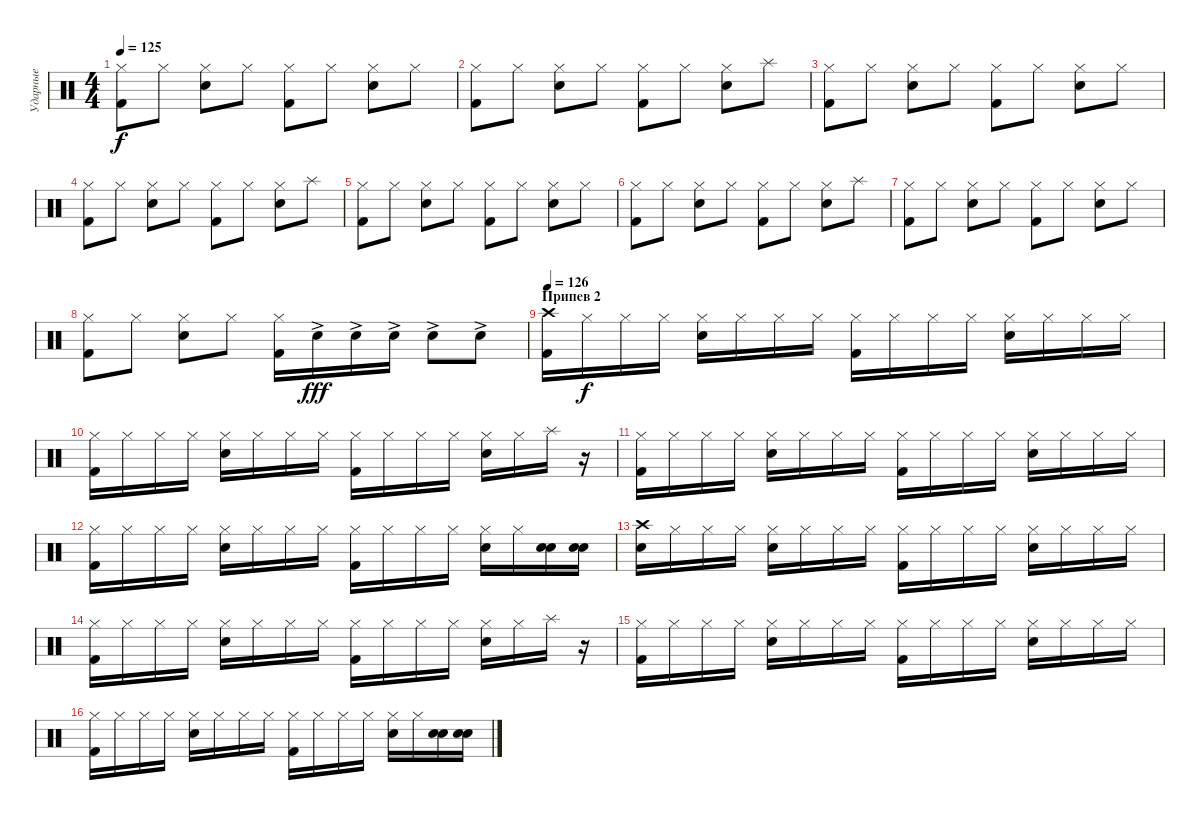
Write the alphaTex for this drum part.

\track ("Ударные" "Ударные") {instrument percussion}
\staff {score}
\articulation defaults
\ts (4 4)
\tempo 125
\clef neutral
\ks c
("Kick (hit) 2" "Hi-Hat (closed)").8{dy f} "Hi-Hat (closed)".8 ("Snare (hit) 2" "Hi-Hat (closed)").8 "Hi-Hat (closed)".8 ("Kick (hit) 2" "Hi-Hat (closed)").8 "Hi-Hat (closed)".8 ("Snare (hit) 2" "Hi-Hat (closed)").8 "Hi-Hat (closed)".8 |
("Kick (hit) 2" "Hi-Hat (closed)").8 "Hi-Hat (closed)".8 ("Snare (hit) 2" "Hi-Hat (closed)").8 "Hi-Hat (closed)".8 ("Kick (hit) 2" "Hi-Hat (closed)").8 "Hi-Hat (closed)".8 ("Snare (hit) 2" "Hi-Hat (closed)").8 "Splash (hit)".8 |
("Kick (hit) 2" "Hi-Hat (closed)").8 "Hi-Hat (closed)".8 ("Snare (hit) 2" "Hi-Hat (closed)").8 "Hi-Hat (closed)".8 ("Kick (hit) 2" "Hi-Hat (closed)").8 "Hi-Hat (closed)".8 ("Snare (hit) 2" "Hi-Hat (closed)").8 "Hi-Hat (closed)".8 |
("Kick (hit) 2" "Hi-Hat (closed)").8 "Hi-Hat (closed)".8 ("Snare (hit) 2" "Hi-Hat (closed)").8 "Hi-Hat (closed)".8 ("Kick (hit) 2" "Hi-Hat (closed)").8 "Hi-Hat (closed)".8 ("Snare (hit) 2" "Hi-Hat (closed)").8 "Splash (hit)".8 |
("Kick (hit) 2" "Hi-Hat (closed)").8 "Hi-Hat (closed)".8 ("Snare (hit) 2" "Hi-Hat (closed)").8 "Hi-Hat (closed)".8 ("Kick (hit) 2" "Hi-Hat (closed)").8 "Hi-Hat (closed)".8 ("Snare (hit) 2" "Hi-Hat (closed)").8 "Hi-Hat (closed)".8 |
("Kick (hit) 2" "Hi-Hat (closed)").8 "Hi-Hat (closed)".8 ("Snare (hit) 2" "Hi-Hat (closed)").8 "Hi-Hat (closed)".8 ("Kick (hit) 2" "Hi-Hat (closed)").8 "Hi-Hat (closed)".8 ("Snare (hit) 2" "Hi-Hat (closed)").8 "Splash (hit)".8 |
("Kick (hit) 2" "Hi-Hat (closed)").8 "Hi-Hat (closed)".8 ("Snare (hit) 2" "Hi-Hat (closed)").8 "Hi-Hat (closed)".8 ("Kick (hit) 2" "Hi-Hat (closed)").8 "Hi-Hat (closed)".8 ("Snare (hit) 2" "Hi-Hat (closed)").8 "Hi-Hat (closed)".8 |
("Kick (hit) 2" "Hi-Hat (closed)").8 "Hi-Hat (closed)".8 ("Snare (hit) 2" "Hi-Hat (closed)").8 "Hi-Hat (closed)".8 ("Kick (hit) 2" "Hi-Hat (closed)").16 "Electric Snare (hit)"{ac}.16{dy fff} "Electric Snare (hit)"{ac}.16 "Snare (hit) 2"{ac}.16 "Snare (hit) 2"{ac}.8 "Snare (hit) 2"{ac}.8 |
\section ("" "Припев 2")
\tempo 126
("Crash high (hit)" "Kick (hit) 2").16 "Hi-Hat (closed)".16{dy f} "Hi-Hat (closed)".16 "Hi-Hat (closed)".16 ("Hi-Hat (closed)" "Snare (hit) 2").16 "Hi-Hat (closed)".16 "Hi-Hat (closed)".16 "Hi-Hat (closed)".16 ("Hi-Hat (closed)" "Kick (hit) 2").16 "Hi-Hat (closed)".16 "Hi-Hat (closed)".16 "Hi-Hat (closed)".16 ("Hi-Hat (closed)" "Snare (hit) 2").16 "Hi-Hat (closed)".16 "Hi-Hat (closed)".16 "Hi-Hat (closed)".16 |
("Hi-Hat (closed)" "Kick (hit) 2").16 "Hi-Hat (closed)".16 "Hi-Hat (closed)".16 "Hi-Hat (closed)".16 ("Hi-Hat (closed)" "Snare (hit) 2").16 "Hi-Hat (closed)".16 "Hi-Hat (closed)".16 "Hi-Hat (closed)".16 ("Hi-Hat (closed)" "Kick (hit) 2").16 "Hi-Hat (closed)".16 "Hi-Hat (closed)".16 "Hi-Hat (closed)".16 ("Hi-Hat (closed)" "Snare (hit) 2").16 "Hi-Hat (closed)".16 "Splash (hit)".16 r.16 |
("Hi-Hat (closed)" "Kick (hit) 2").16 "Hi-Hat (closed)".16 "Hi-Hat (closed)".16 "Hi-Hat (closed)".16 ("Hi-Hat (closed)" "Snare (hit) 2").16 "Hi-Hat (closed)".16 "Hi-Hat (closed)".16 "Hi-Hat (closed)".16 ("Hi-Hat (closed)" "Kick (hit) 2").16 "Hi-Hat (closed)".16 "Hi-Hat (closed)".16 "Hi-Hat (closed)".16 ("Hi-Hat (closed)" "Snare (hit) 2").16 "Hi-Hat (closed)".16 "Hi-Hat (closed)".16 "Hi-Hat (closed)".16 |
("Hi-Hat (closed)" "Kick (hit) 2").16 "Hi-Hat (closed)".16 "Hi-Hat (closed)".16 "Hi-Hat (closed)".16 ("Hi-Hat (closed)" "Snare (hit) 2").16 "Hi-Hat (closed)".16 "Hi-Hat (closed)".16 "Hi-Hat (closed)".16 ("Hi-Hat (closed)" "Kick (hit) 2").16 "Hi-Hat (closed)".16 "Hi-Hat (closed)".16 "Hi-Hat (closed)".16 ("Hi-Hat (closed)" "Snare (hit) 2").16 "Hi-Hat (closed)".16 ("Snare (hit) 2" "Electric Snare (hit)").16{balance 0} ("Snare (hit) 2" "Electric Snare (hit)").16 |
("Snare (hit) 2" "Crash high (hit)").16{balance 8} "Hi-Hat (closed)".16 "Hi-Hat (closed)".16 "Hi-Hat (closed)".16 ("Hi-Hat (closed)" "Snare (hit) 2").16 "Hi-Hat (closed)".16 "Hi-Hat (closed)".16 "Hi-Hat (closed)".16 ("Hi-Hat (closed)" "Kick (hit) 2").16 "Hi-Hat (closed)".16 "Hi-Hat (closed)".16 "Hi-Hat (closed)".16 ("Hi-Hat (closed)" "Snare (hit) 2").16 "Hi-Hat (closed)".16 "Hi-Hat (closed)".16 "Hi-Hat (closed)".16 |
("Hi-Hat (closed)" "Kick (hit) 2").16 "Hi-Hat (closed)".16 "Hi-Hat (closed)".16 "Hi-Hat (closed)".16 ("Hi-Hat (closed)" "Snare (hit) 2").16 "Hi-Hat (closed)".16 "Hi-Hat (closed)".16 "Hi-Hat (closed)".16 ("Hi-Hat (closed)" "Kick (hit) 2").16 "Hi-Hat (closed)".16 "Hi-Hat (closed)".16 "Hi-Hat (closed)".16 ("Hi-Hat (closed)" "Snare (hit) 2").16 "Hi-Hat (closed)".16 "Splash (hit)".16 r.16 |
("Hi-Hat (closed)" "Kick (hit) 2").16 "Hi-Hat (closed)".16 "Hi-Hat (closed)".16 "Hi-Hat (closed)".16 ("Hi-Hat (closed)" "Snare (hit) 2").16 "Hi-Hat (closed)".16 "Hi-Hat (closed)".16 "Hi-Hat (closed)".16 ("Hi-Hat (closed)" "Kick (hit) 2").16 "Hi-Hat (closed)".16 "Hi-Hat (closed)".16 "Hi-Hat (closed)".16 ("Hi-Hat (closed)" "Snare (hit) 2").16 "Hi-Hat (closed)".16 "Hi-Hat (closed)".16 "Hi-Hat (closed)".16 |
("Hi-Hat (closed)" "Kick (hit) 2").16 "Hi-Hat (closed)".16 "Hi-Hat (closed)".16 "Hi-Hat (closed)".16 ("Hi-Hat (closed)" "Snare (hit) 2").16 "Hi-Hat (closed)".16 "Hi-Hat (closed)".16 "Hi-Hat (closed)".16 ("Hi-Hat (closed)" "Kick (hit) 2").16 "Hi-Hat (closed)".16 "Hi-Hat (closed)".16 "Hi-Hat (closed)".16 ("Hi-Hat (closed)" "Snare (hit) 2").16 "Hi-Hat (closed)".16 ("Snare (hit) 2" "Electric Snare (hit)").16{balance 0} ("Snare (hit) 2" "Electric Snare (hit)").16
